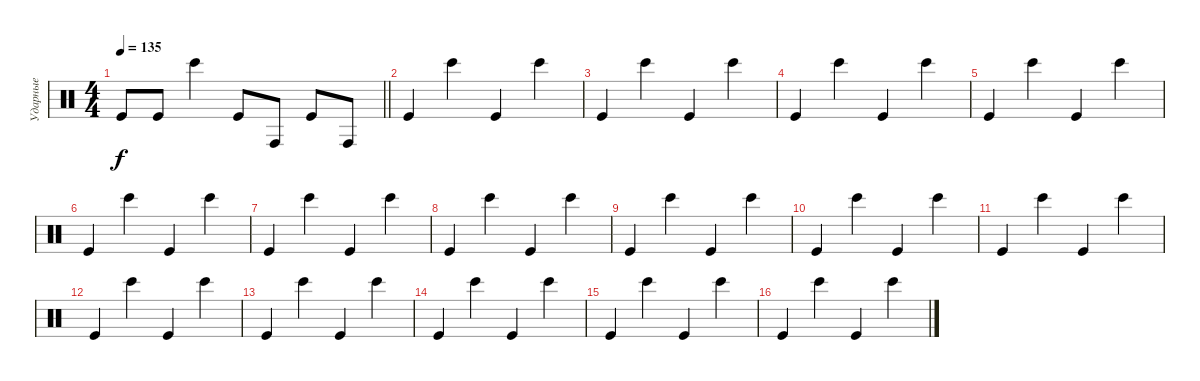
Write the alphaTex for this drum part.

\track ("Ударные" "Ударные") {instrument percussion}
\staff {score}
\articulation defaults
\ts (4 4)
\tempo 135
\clef neutral
\barLineRight lightlight
\ks c "Kick (hit)".8{dy f} "Kick (hit)".8 "Bongo High (hit)".4 "Kick (hit)".8 "Conga high (hit)".8 "Kick (hit)".8 "Conga high (hit)".8
|
"Kick (hit)".4 "Bongo High (hit)".4 "Kick (hit)".4 "Bongo High (hit)".4 |
"Kick (hit)".4 "Bongo High (hit)".4 "Kick (hit)".4 "Bongo High (hit)".4 |
"Kick (hit)".4 "Bongo High (hit)".4 "Kick (hit)".4 "Bongo High (hit)".4 |
"Kick (hit)".4 "Bongo High (hit)".4 "Kick (hit)".4 "Bongo High (hit)".4 |
"Kick (hit)".4 "Bongo High (hit)".4 "Kick (hit)".4 "Bongo High (hit)".4 |
"Kick (hit)".4 "Bongo High (hit)".4 "Kick (hit)".4 "Bongo High (hit)".4 |
"Kick (hit)".4 "Bongo High (hit)".4 "Kick (hit)".4 "Bongo High (hit)".4 |
"Kick (hit)".4 "Bongo High (hit)".4 "Kick (hit)".4 "Bongo High (hit)".4 |
"Kick (hit)".4 "Bongo High (hit)".4 "Kick (hit)".4 "Bongo High (hit)".4 |
"Kick (hit)".4 "Bongo High (hit)".4 "Kick (hit)".4 "Bongo High (hit)".4 |
"Kick (hit)".4 "Bongo High (hit)".4 "Kick (hit)".4 "Bongo High (hit)".4 |
"Kick (hit)".4 "Bongo High (hit)".4 "Kick (hit)".4 "Bongo High (hit)".4 |
"Kick (hit)".4 "Bongo High (hit)".4 "Kick (hit)".4 "Bongo High (hit)".4 |
"Kick (hit)".4 "Bongo High (hit)".4 "Kick (hit)".4 "Bongo High (hit)".4 |
"Kick (hit)".4 "Bongo High (hit)".4 "Kick (hit)".4 "Bongo High (hit)".4
